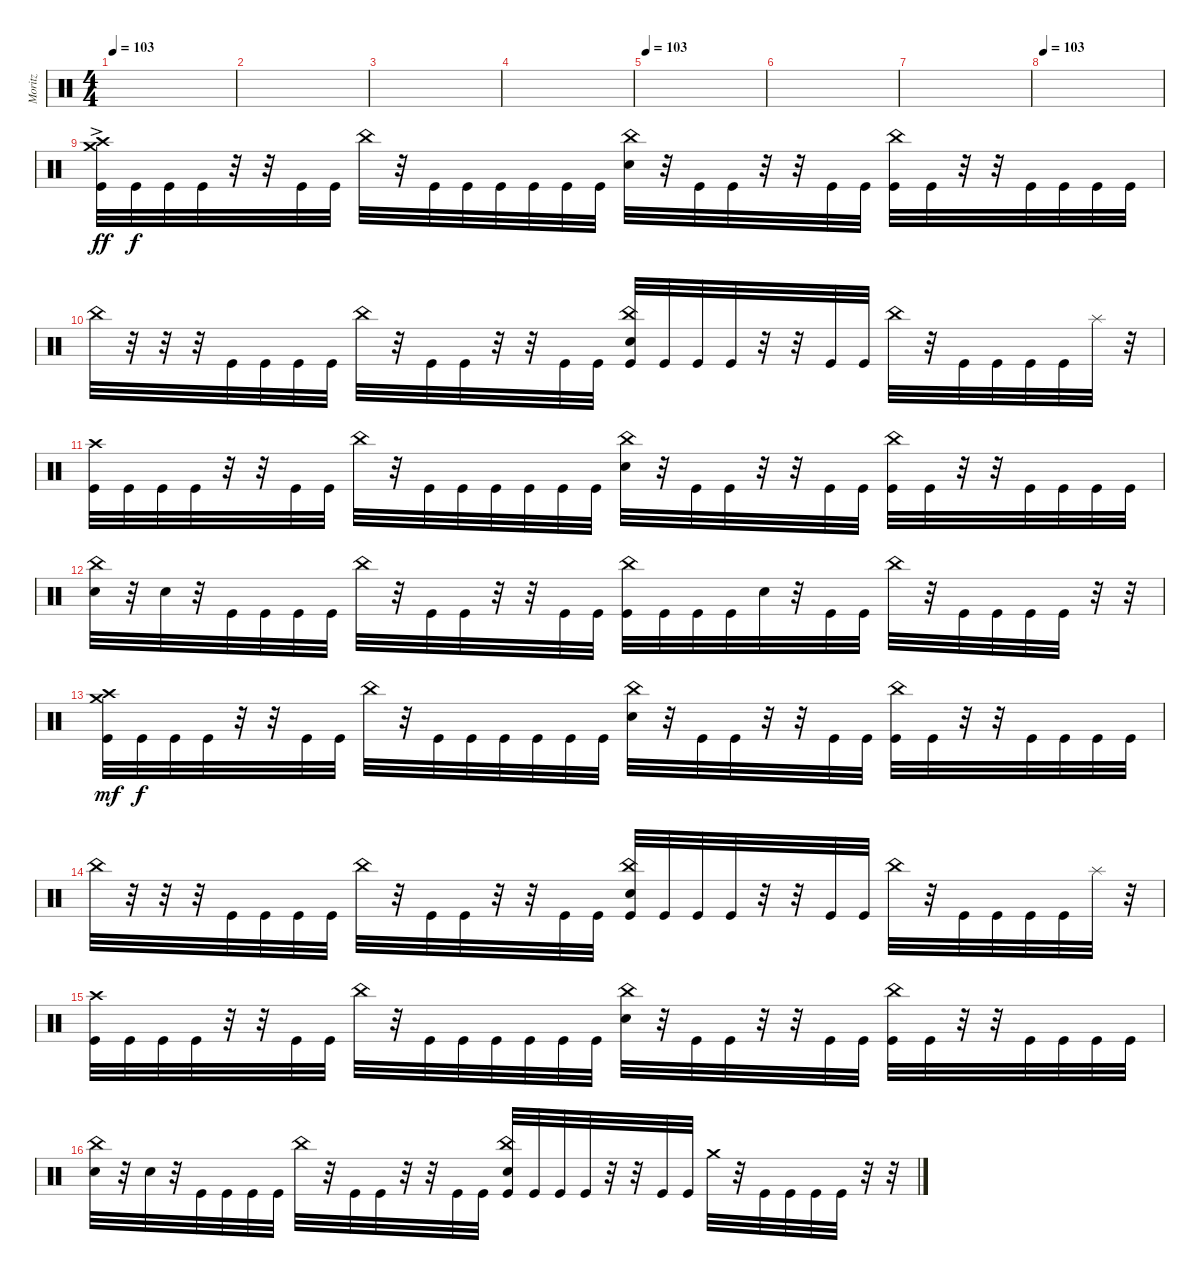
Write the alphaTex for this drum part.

\track ("Moritz" "Moritz") {instrument percussion}
\staff {score}
\articulation defaults
\ts (4 4)
\tempo 103
\clef neutral
\ks c
|
|
|
|
\tempo 103
|
|
|
\tempo 103
|
("Crash medium (hit)"{ac} "Crash high (hit)"{ac} "Kick (hit)"{ac}).32{dy ff} "Kick (hit)".32{dy f} "Kick (hit)".32 "Kick (hit)".32 r.32 r.32 "Kick (hit)".32 "Kick (hit)".32 "China (hit)".32 r.32 "Kick (hit)".32 "Kick (hit)".32 "Kick (hit)".32 "Kick (hit)".32 "Kick (hit)".32 "Kick (hit)".32 ("China (hit)" "Snare (hit) 2").32 r.32 "Kick (hit)".32 "Kick (hit)".32 r.32 r.32 "Kick (hit)".32 "Kick (hit)".32 ("China (hit)" "Kick (hit)").32 "Kick (hit)".32 r.32 r.32 "Kick (hit)".32 "Kick (hit)".32 "Kick (hit)".32 "Kick (hit)".32 |
"China (hit)".32 r.32 r.32 r.32 "Kick (hit)".32 "Kick (hit)".32 "Kick (hit)".32 "Kick (hit)".32 "China (hit)".32 r.32 "Kick (hit)".32 "Kick (hit)".32 r.32 r.32 "Kick (hit)".32 "Kick (hit)".32 ("China (hit)" "Snare (hit) 2" "Kick (hit)").32 "Kick (hit)".32 "Kick (hit)".32 "Kick (hit)".32 r.32 r.32 "Kick (hit)".32 "Kick (hit)".32 "China (hit)".32 r.32 "Kick (hit)".32 "Kick (hit)".32 "Kick (hit)".32 "Kick (hit)".32 "Splash (hit)".32 r.32 |
("Crash high (hit)" "Kick (hit)").32 "Kick (hit)".32 "Kick (hit)".32 "Kick (hit)".32 r.32 r.32 "Kick (hit)".32 "Kick (hit)".32 "China (hit)".32 r.32 "Kick (hit)".32 "Kick (hit)".32 "Kick (hit)".32 "Kick (hit)".32 "Kick (hit)".32 "Kick (hit)".32 ("China (hit)" "Snare (hit) 2").32 r.32 "Kick (hit)".32 "Kick (hit)".32 r.32 r.32 "Kick (hit)".32 "Kick (hit)".32 ("China (hit)" "Kick (hit)").32 "Kick (hit)".32 r.32 r.32 "Kick (hit)".32 "Kick (hit)".32 "Kick (hit)".32 "Kick (hit)".32 |
("China (hit)" "Snare (hit) 2").32 r.32 "Snare (hit) 2".32 r.32 "Kick (hit)".32 "Kick (hit)".32 "Kick (hit)".32 "Kick (hit)".32 "China (hit)".32 r.32 "Kick (hit)".32 "Kick (hit)".32 r.32 r.32 "Kick (hit)".32 "Kick (hit)".32 ("China (hit)" "Kick (hit)").32 "Kick (hit)".32 "Kick (hit)".32 "Kick (hit)".32 "Snare (hit) 2".32 r.32 "Kick (hit)".32 "Kick (hit)".32 "China (hit)".32 r.32 "Kick (hit)".32 "Kick (hit)".32 "Kick (hit)".32 "Kick (hit)".32 r.32 r.32 |
("Crash medium (hit)" "Crash high (hit)" "Kick (hit)").32{dy mf} "Kick (hit)".32{dy f} "Kick (hit)".32 "Kick (hit)".32 r.32 r.32 "Kick (hit)".32 "Kick (hit)".32 "China (hit)".32 r.32 "Kick (hit)".32 "Kick (hit)".32 "Kick (hit)".32 "Kick (hit)".32 "Kick (hit)".32 "Kick (hit)".32 ("China (hit)" "Snare (hit) 2").32 r.32 "Kick (hit)".32 "Kick (hit)".32 r.32 r.32 "Kick (hit)".32 "Kick (hit)".32 ("China (hit)" "Kick (hit)").32 "Kick (hit)".32 r.32 r.32 "Kick (hit)".32 "Kick (hit)".32 "Kick (hit)".32 "Kick (hit)".32 |
"China (hit)".32 r.32 r.32 r.32 "Kick (hit)".32 "Kick (hit)".32 "Kick (hit)".32 "Kick (hit)".32 "China (hit)".32 r.32 "Kick (hit)".32 "Kick (hit)".32 r.32 r.32 "Kick (hit)".32 "Kick (hit)".32 ("China (hit)" "Snare (hit) 2" "Kick (hit)").32 "Kick (hit)".32 "Kick (hit)".32 "Kick (hit)".32 r.32 r.32 "Kick (hit)".32 "Kick (hit)".32 "China (hit)".32 r.32 "Kick (hit)".32 "Kick (hit)".32 "Kick (hit)".32 "Kick (hit)".32 "Splash (hit)".32 r.32 |
("Crash high (hit)" "Kick (hit)").32 "Kick (hit)".32 "Kick (hit)".32 "Kick (hit)".32 r.32 r.32 "Kick (hit)".32 "Kick (hit)".32 "China (hit)".32 r.32 "Kick (hit)".32 "Kick (hit)".32 "Kick (hit)".32 "Kick (hit)".32 "Kick (hit)".32 "Kick (hit)".32 ("China (hit)" "Snare (hit) 2").32 r.32 "Kick (hit)".32 "Kick (hit)".32 r.32 r.32 "Kick (hit)".32 "Kick (hit)".32 ("China (hit)" "Kick (hit)").32 "Kick (hit)".32 r.32 r.32 "Kick (hit)".32 "Kick (hit)".32 "Kick (hit)".32 "Kick (hit)".32 |
("China (hit)" "Snare (hit) 2").32 r.32 "Snare (hit) 2".32 r.32 "Kick (hit)".32 "Kick (hit)".32 "Kick (hit)".32 "Kick (hit)".32 "China (hit)".32 r.32 "Kick (hit)".32 "Kick (hit)".32 r.32 r.32 "Kick (hit)".32 "Kick (hit)".32 ("China (hit)" "Snare (hit) 2" "Kick (hit)").32 "Kick (hit)".32 "Kick (hit)".32 "Kick (hit)".32 r.32 r.32 "Kick (hit)".32 "Kick (hit)".32 "Crash medium (hit)".32 r.32 "Kick (hit)".32 "Kick (hit)".32 "Kick (hit)".32 "Kick (hit)".32 r.32 r.32
